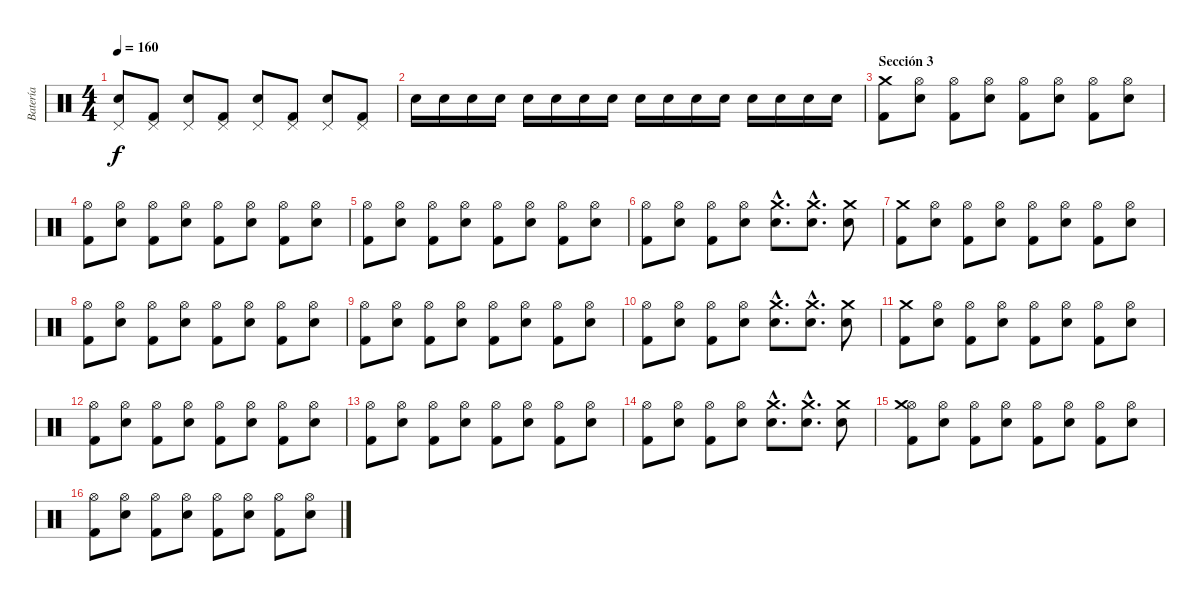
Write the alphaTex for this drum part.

\track ("Batería" "Batería") {instrument percussion}
\staff {score}
\articulation defaults
\ts (4 4)
\tempo 160
\clef neutral
\ks c
("Pedal Hi-Hat (hit)" "Electric Snare (hit)").8{dy f} ("Pedal Hi-Hat (hit)" "Kick (hit) 2").8 ("Pedal Hi-Hat (hit)" "Electric Snare (hit)").8 ("Pedal Hi-Hat (hit)" "Kick (hit) 2").8 ("Pedal Hi-Hat (hit)" "Electric Snare (hit)").8 ("Pedal Hi-Hat (hit)" "Kick (hit) 2").8 ("Pedal Hi-Hat (hit)" "Electric Snare (hit)").8 ("Pedal Hi-Hat (hit)" "Kick (hit) 2").8 |
"Electric Snare (hit)".16 "Electric Snare (hit)".16 "Electric Snare (hit)".16 "Electric Snare (hit)".16 "Electric Snare (hit)".16 "Electric Snare (hit)".16 "Electric Snare (hit)".16 "Electric Snare (hit)".16 "Electric Snare (hit)".16 "Electric Snare (hit)".16 "Electric Snare (hit)".16 "Electric Snare (hit)".16 "Electric Snare (hit)".16 "Electric Snare (hit)".16 "Electric Snare (hit)".16 "Electric Snare (hit)".16 |
\section ("" "Sección 3")
("Crash medium (hit)" "Kick (hit) 2").8 ("Hi-Hat (open)" "Electric Snare (hit)").8 ("Hi-Hat (open)" "Kick (hit) 2").8 ("Hi-Hat (open)" "Electric Snare (hit)").8 ("Hi-Hat (open)" "Kick (hit) 2").8 ("Hi-Hat (open)" "Electric Snare (hit)").8 ("Hi-Hat (open)" "Kick (hit) 2").8 ("Hi-Hat (open)" "Electric Snare (hit)").8 |
("Hi-Hat (open)" "Kick (hit) 2").8 ("Hi-Hat (open)" "Electric Snare (hit)").8 ("Hi-Hat (open)" "Kick (hit) 2").8 ("Hi-Hat (open)" "Electric Snare (hit)").8 ("Hi-Hat (open)" "Kick (hit) 2").8 ("Hi-Hat (open)" "Electric Snare (hit)").8 ("Hi-Hat (open)" "Kick (hit) 2").8 ("Hi-Hat (open)" "Electric Snare (hit)").8 |
("Hi-Hat (open)" "Kick (hit) 2").8 ("Hi-Hat (open)" "Electric Snare (hit)").8 ("Hi-Hat (open)" "Kick (hit) 2").8 ("Hi-Hat (open)" "Electric Snare (hit)").8 ("Hi-Hat (open)" "Kick (hit) 2").8 ("Hi-Hat (open)" "Electric Snare (hit)").8 ("Hi-Hat (open)" "Kick (hit) 2").8 ("Hi-Hat (open)" "Electric Snare (hit)").8 |
("Hi-Hat (open)" "Kick (hit) 2").8 ("Hi-Hat (open)" "Electric Snare (hit)").8 ("Hi-Hat (open)" "Kick (hit) 2").8 ("Hi-Hat (open)" "Electric Snare (hit)").8 ("Crash medium (hit)"{hac} "Electric Snare (hit)"{hac}).8{d} ("Crash medium (hit)"{hac} "Electric Snare (hit)"{hac}).8{d} ("Crash medium (hit)" "Electric Snare (hit)").8 |
("Crash medium (hit)" "Kick (hit) 2").8 ("Hi-Hat (open)" "Electric Snare (hit)").8 ("Hi-Hat (open)" "Kick (hit) 2").8 ("Hi-Hat (open)" "Electric Snare (hit)").8 ("Hi-Hat (open)" "Kick (hit) 2").8 ("Hi-Hat (open)" "Electric Snare (hit)").8 ("Hi-Hat (open)" "Kick (hit) 2").8 ("Hi-Hat (open)" "Electric Snare (hit)").8 |
("Hi-Hat (open)" "Kick (hit) 2").8 ("Hi-Hat (open)" "Electric Snare (hit)").8 ("Hi-Hat (open)" "Kick (hit) 2").8 ("Hi-Hat (open)" "Electric Snare (hit)").8 ("Hi-Hat (open)" "Kick (hit) 2").8 ("Hi-Hat (open)" "Electric Snare (hit)").8 ("Hi-Hat (open)" "Kick (hit) 2").8 ("Hi-Hat (open)" "Electric Snare (hit)").8 |
("Hi-Hat (open)" "Kick (hit) 2").8 ("Hi-Hat (open)" "Electric Snare (hit)").8 ("Hi-Hat (open)" "Kick (hit) 2").8 ("Hi-Hat (open)" "Electric Snare (hit)").8 ("Hi-Hat (open)" "Kick (hit) 2").8 ("Hi-Hat (open)" "Electric Snare (hit)").8 ("Hi-Hat (open)" "Kick (hit) 2").8 ("Hi-Hat (open)" "Electric Snare (hit)").8 |
("Hi-Hat (open)" "Kick (hit) 2").8 ("Hi-Hat (open)" "Electric Snare (hit)").8 ("Hi-Hat (open)" "Kick (hit) 2").8 ("Hi-Hat (open)" "Electric Snare (hit)").8 ("Crash medium (hit)"{hac} "Electric Snare (hit)"{hac}).8{d} ("Crash medium (hit)"{hac} "Electric Snare (hit)"{hac}).8{d} ("Crash medium (hit)" "Electric Snare (hit)").8 |
("Crash medium (hit)" "Kick (hit) 2").8 ("Hi-Hat (open)" "Electric Snare (hit)").8 ("Hi-Hat (open)" "Kick (hit) 2").8 ("Hi-Hat (open)" "Electric Snare (hit)").8 ("Hi-Hat (open)" "Kick (hit) 2").8 ("Hi-Hat (open)" "Electric Snare (hit)").8 ("Hi-Hat (open)" "Kick (hit) 2").8 ("Hi-Hat (open)" "Electric Snare (hit)").8 |
("Hi-Hat (open)" "Kick (hit) 2").8 ("Hi-Hat (open)" "Electric Snare (hit)").8 ("Hi-Hat (open)" "Kick (hit) 2").8 ("Hi-Hat (open)" "Electric Snare (hit)").8 ("Hi-Hat (open)" "Kick (hit) 2").8 ("Hi-Hat (open)" "Electric Snare (hit)").8 ("Hi-Hat (open)" "Kick (hit) 2").8 ("Hi-Hat (open)" "Electric Snare (hit)").8 |
("Hi-Hat (open)" "Kick (hit) 2").8 ("Hi-Hat (open)" "Electric Snare (hit)").8 ("Hi-Hat (open)" "Kick (hit) 2").8 ("Hi-Hat (open)" "Electric Snare (hit)").8 ("Hi-Hat (open)" "Kick (hit) 2").8 ("Hi-Hat (open)" "Electric Snare (hit)").8 ("Hi-Hat (open)" "Kick (hit) 2").8 ("Hi-Hat (open)" "Electric Snare (hit)").8 |
("Hi-Hat (open)" "Kick (hit) 2").8 ("Hi-Hat (open)" "Electric Snare (hit)").8 ("Hi-Hat (open)" "Kick (hit) 2").8 ("Hi-Hat (open)" "Electric Snare (hit)").8 ("Crash medium (hit)"{hac} "Electric Snare (hit)"{hac}).8{d} ("Crash medium (hit)"{hac} "Electric Snare (hit)"{hac}).8{d} ("Crash medium (hit)" "Electric Snare (hit)").8 |
("Hi-Hat (open)" "Crash medium (hit)" "Kick (hit) 2").8 ("Hi-Hat (open)" "Electric Snare (hit)").8 ("Hi-Hat (open)" "Kick (hit) 2").8 ("Hi-Hat (open)" "Electric Snare (hit)").8 ("Hi-Hat (open)" "Kick (hit) 2").8 ("Hi-Hat (open)" "Electric Snare (hit)").8 ("Hi-Hat (open)" "Kick (hit) 2").8 ("Hi-Hat (open)" "Electric Snare (hit)").8 |
("Hi-Hat (open)" "Kick (hit) 2").8 ("Hi-Hat (open)" "Electric Snare (hit)").8 ("Hi-Hat (open)" "Kick (hit) 2").8 ("Hi-Hat (open)" "Electric Snare (hit)").8 ("Hi-Hat (open)" "Kick (hit) 2").8 ("Hi-Hat (open)" "Electric Snare (hit)").8 ("Hi-Hat (open)" "Kick (hit) 2").8 ("Hi-Hat (open)" "Electric Snare (hit)").8
